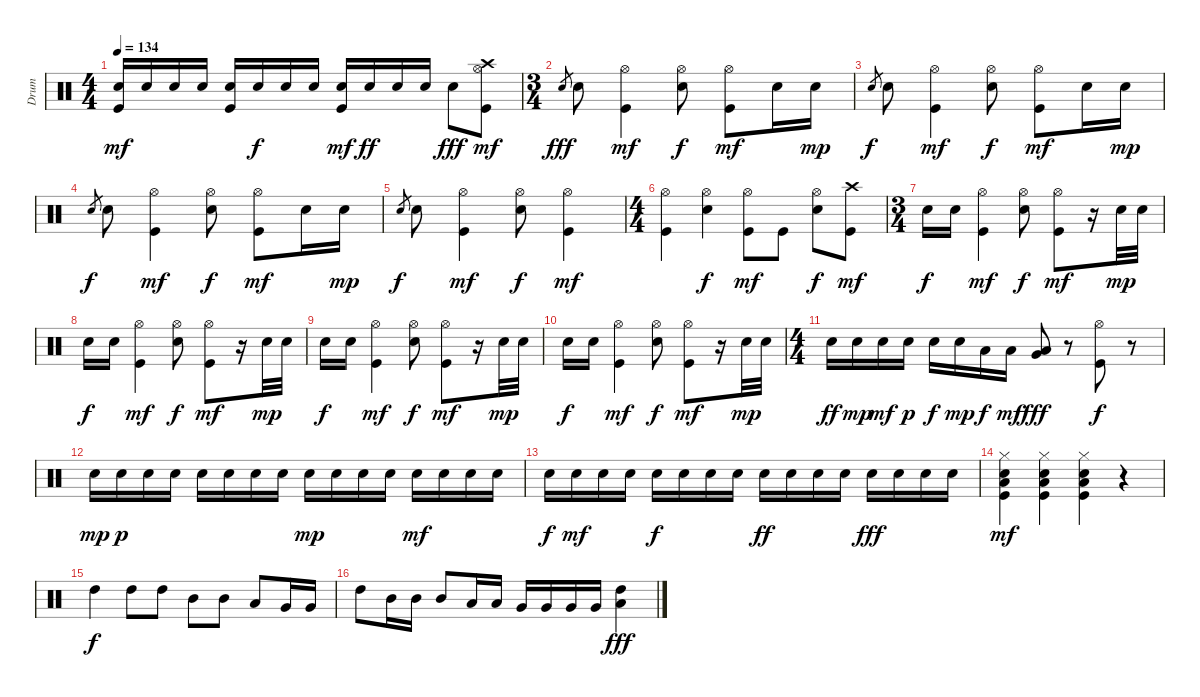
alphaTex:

\track ("Drum" "Drum") {instrument percussion}
\staff {score}
\articulation defaults
\ts (4 4)
\tempo 134
\clef neutral
\ks c
("Electric Snare (hit)" "Kick (hit)").16{dy mf} "Electric Snare (hit)".16 "Electric Snare (hit)".16 "Electric Snare (hit)".16 ("Electric Snare (hit)" "Kick (hit)").16 "Electric Snare (hit)".16{dy f} "Electric Snare (hit)".16 "Electric Snare (hit)".16 ("Electric Snare (hit)" "Kick (hit)").16{dy mf} "Electric Snare (hit)".16{dy ff} "Electric Snare (hit)".16 "Electric Snare (hit)".16 "Electric Snare (hit)".8{dy fff} ("Hi-Hat (open)" "Crash high (hit)" "Kick (hit)").8{dy mf} |
\ts (3 4)
"Electric Snare (hit)".8{gr dy fff} "Electric Snare (hit)".8 ("Hi-Hat (open)" "Kick (hit)").4{dy mf} ("Hi-Hat (open)" "Electric Snare (hit)").8{dy f} ("Hi-Hat (open)" "Kick (hit)").8{dy mf} "Electric Snare (hit)".16 "Electric Snare (hit)".16{dy mp} |
"Electric Snare (hit)".8{gr dy f} "Electric Snare (hit)".8 ("Hi-Hat (open)" "Kick (hit)").4{dy mf} ("Hi-Hat (open)" "Electric Snare (hit)").8{dy f} ("Hi-Hat (open)" "Kick (hit)").8{dy mf} "Electric Snare (hit)".16 "Electric Snare (hit)".16{dy mp} |
"Electric Snare (hit)".8{gr dy f} "Electric Snare (hit)".8 ("Hi-Hat (open)" "Kick (hit)").4{dy mf} ("Hi-Hat (open)" "Electric Snare (hit)").8{dy f} ("Hi-Hat (open)" "Kick (hit)").8{dy mf} "Electric Snare (hit)".16 "Electric Snare (hit)".16{dy mp} |
"Electric Snare (hit)".8{gr dy f} "Electric Snare (hit)".8 ("Hi-Hat (open)" "Kick (hit)").4{dy mf} ("Hi-Hat (open)" "Electric Snare (hit)").8{dy f} ("Hi-Hat (open)" "Kick (hit)").4{dy mf} |
\ts (4 4)
("Hi-Hat (open)" "Kick (hit)").4 ("Hi-Hat (open)" "Electric Snare (hit)").4{dy f} ("Hi-Hat (open)" "Kick (hit)").8{dy mf} "Kick (hit)".8 ("Hi-Hat (open)" "Electric Snare (hit)").8{dy f} ("Crash high (hit)" "Kick (hit)").8{dy mf} |
\ts (3 4)
"Electric Snare (hit)".16{dy f} "Electric Snare (hit)".16 ("Hi-Hat (open)" "Kick (hit)").4{dy mf} ("Hi-Hat (open)" "Electric Snare (hit)").8{dy f} ("Hi-Hat (open)" "Kick (hit)").8{dy mf} r.16 "Electric Snare (hit)".32{dy mp} "Electric Snare (hit)".32 |
"Electric Snare (hit)".16{dy f} "Electric Snare (hit)".16 ("Hi-Hat (open)" "Kick (hit)").4{dy mf} ("Hi-Hat (open)" "Electric Snare (hit)").8{dy f} ("Hi-Hat (open)" "Kick (hit)").8{dy mf} r.16 "Electric Snare (hit)".32{dy mp} "Electric Snare (hit)".32 |
"Electric Snare (hit)".16{dy f} "Electric Snare (hit)".16 ("Hi-Hat (open)" "Kick (hit)").4{dy mf} ("Hi-Hat (open)" "Electric Snare (hit)").8{dy f} ("Hi-Hat (open)" "Kick (hit)").8{dy mf} r.16 "Electric Snare (hit)".32{dy mp} "Electric Snare (hit)".32 |
"Electric Snare (hit)".16{dy f} "Electric Snare (hit)".16 ("Hi-Hat (open)" "Kick (hit)").4{dy mf} ("Hi-Hat (open)" "Electric Snare (hit)").8{dy f} ("Hi-Hat (open)" "Kick (hit)").8{dy mf} r.16 "Electric Snare (hit)".32{dy mp} "Electric Snare (hit)".32 |
\ts (4 4)
"Electric Snare (hit)".16{dy ff} "Electric Snare (hit)".16{dy mp} "Electric Snare (hit)".16{dy mf} "Electric Snare (hit)".16{dy p} "Electric Snare (hit)".16{dy f} "Electric Snare (hit)".16{dy mp} "Low Tom (hit)".16{dy f} "Low Tom (hit)".16{dy mf} ("Very Low Tom (hit)" "Low Floor Tom (hit)").8{dy fff balance 13} r.8 ("Hi-Hat (open)" "Kick (hit)").8{dy f balance 8} r.8 |
"Electric Snare (hit)".16{dy mp} "Electric Snare (hit)".16{dy p} "Electric Snare (hit)".16 "Electric Snare (hit)".16 "Electric Snare (hit)".16 "Electric Snare (hit)".16 "Electric Snare (hit)".16 "Electric Snare (hit)".16 "Electric Snare (hit)".16{dy mp} "Electric Snare (hit)".16 "Electric Snare (hit)".16 "Electric Snare (hit)".16 "Electric Snare (hit)".16{dy mf} "Electric Snare (hit)".16 "Electric Snare (hit)".16 "Electric Snare (hit)".16 |
"Electric Snare (hit)".16{dy f} "Electric Snare (hit)".16{dy mf} "Electric Snare (hit)".16 "Electric Snare (hit)".16 "Electric Snare (hit)".16{dy f} "Electric Snare (hit)".16 "Electric Snare (hit)".16 "Electric Snare (hit)".16 "Electric Snare (hit)".16{dy ff} "Electric Snare (hit)".16 "Electric Snare (hit)".16 "Electric Snare (hit)".16 "Electric Snare (hit)".16{dy fff} "Electric Snare (hit)".16 "Electric Snare (hit)".16 "Electric Snare (hit)".16 |
("Hi-Hat (closed)" "Low Floor Tom (hit)" "Electric Snare (hit)" "Kick (hit)").4{dy mf} ("Hi-Hat (closed)" "Low Floor Tom (hit)" "Electric Snare (hit)" "Kick (hit)").4 ("Hi-Hat (closed)" "Low Floor Tom (hit)" "Electric Snare (hit)" "Kick (hit)").4 r.4 |
"High Tom (hit)".4{dy f} "High Tom (hit)".8 "High Tom (hit)".8 "Mid Tom (hit)".8 "Mid Tom (hit)".8 "Low Tom (hit)".8 "Very Low Tom (hit)".16 "Very Low Tom (hit)".16 |
"High Tom (hit)".8 "Mid Tom (hit)".16 "Mid Tom (hit)".16 "Mid Tom (hit)".8 "Low Tom (hit)".16 "Low Tom (hit)".16 "Very Low Tom (hit)".16 "Very Low Tom (hit)".16 "Very Low Tom (hit)".16 "Very Low Tom (hit)".16 ("High Tom (hit)" "Low Floor Tom (hit)").4{dy fff}
